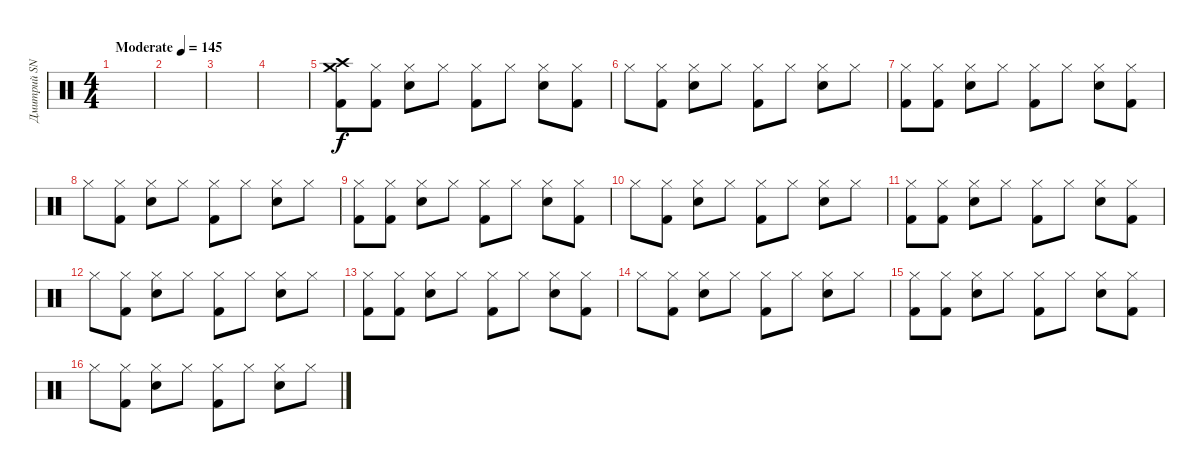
\track ("Дмитрий SNAKE Хакимов" "Дмитрий SN") {instrument percussion}
\staff {score}
\articulation defaults
\ts (4 4)
\tempo (145 "Moderate")
\clef neutral
\ks c
|
|
|
|
("Crash high (hit)" "Crash medium (hit)" "Kick (hit) 2").8 ("Hi-Hat (closed)" "Kick (hit) 2").8 ("Hi-Hat (closed)" "Snare (hit) 2").8 "Hi-Hat (closed)".8 ("Hi-Hat (closed)" "Kick (hit) 2").8 "Hi-Hat (closed)".8 ("Hi-Hat (closed)" "Snare (hit) 2").8 ("Hi-Hat (closed)" "Kick (hit) 2").8 |
"Hi-Hat (closed)".8 ("Hi-Hat (closed)" "Kick (hit) 2").8 ("Hi-Hat (closed)" "Snare (hit) 2").8 "Hi-Hat (closed)".8 ("Hi-Hat (closed)" "Kick (hit) 2").8 "Hi-Hat (closed)".8 ("Hi-Hat (closed)" "Snare (hit) 2").8 "Hi-Hat (closed)".8 |
("Hi-Hat (closed)" "Kick (hit) 2").8 ("Hi-Hat (closed)" "Kick (hit) 2").8 ("Hi-Hat (closed)" "Snare (hit) 2").8 "Hi-Hat (closed)".8 ("Hi-Hat (closed)" "Kick (hit) 2").8 "Hi-Hat (closed)".8 ("Hi-Hat (closed)" "Snare (hit) 2").8 ("Hi-Hat (closed)" "Kick (hit) 2").8 |
"Hi-Hat (closed)".8 ("Hi-Hat (closed)" "Kick (hit) 2").8 ("Hi-Hat (closed)" "Snare (hit) 2").8 "Hi-Hat (closed)".8 ("Hi-Hat (closed)" "Kick (hit) 2").8 "Hi-Hat (closed)".8 ("Hi-Hat (closed)" "Snare (hit) 2").8 "Hi-Hat (closed)".8 |
("Hi-Hat (closed)" "Kick (hit) 2").8 ("Hi-Hat (closed)" "Kick (hit) 2").8 ("Hi-Hat (closed)" "Snare (hit) 2").8 "Hi-Hat (closed)".8 ("Hi-Hat (closed)" "Kick (hit) 2").8 "Hi-Hat (closed)".8 ("Hi-Hat (closed)" "Snare (hit) 2").8 ("Hi-Hat (closed)" "Kick (hit) 2").8 |
"Hi-Hat (closed)".8 ("Hi-Hat (closed)" "Kick (hit) 2").8 ("Hi-Hat (closed)" "Snare (hit) 2").8 "Hi-Hat (closed)".8 ("Hi-Hat (closed)" "Kick (hit) 2").8 "Hi-Hat (closed)".8 ("Hi-Hat (closed)" "Snare (hit) 2").8 "Hi-Hat (closed)".8 |
("Hi-Hat (closed)" "Kick (hit) 2").8 ("Hi-Hat (closed)" "Kick (hit) 2").8 ("Hi-Hat (closed)" "Snare (hit) 2").8 "Hi-Hat (closed)".8 ("Hi-Hat (closed)" "Kick (hit) 2").8 "Hi-Hat (closed)".8 ("Hi-Hat (closed)" "Snare (hit) 2").8 ("Hi-Hat (closed)" "Kick (hit) 2").8 |
"Hi-Hat (closed)".8 ("Hi-Hat (closed)" "Kick (hit) 2").8 ("Hi-Hat (closed)" "Snare (hit) 2").8 "Hi-Hat (closed)".8 ("Hi-Hat (closed)" "Kick (hit) 2").8 "Hi-Hat (closed)".8 ("Hi-Hat (closed)" "Snare (hit) 2").8 "Hi-Hat (closed)".8 |
("Hi-Hat (closed)" "Kick (hit) 2").8 ("Hi-Hat (closed)" "Kick (hit) 2").8 ("Hi-Hat (closed)" "Snare (hit) 2").8 "Hi-Hat (closed)".8 ("Hi-Hat (closed)" "Kick (hit) 2").8 "Hi-Hat (closed)".8 ("Hi-Hat (closed)" "Snare (hit) 2").8 ("Hi-Hat (closed)" "Kick (hit) 2").8 |
"Hi-Hat (closed)".8 ("Hi-Hat (closed)" "Kick (hit) 2").8 ("Hi-Hat (closed)" "Snare (hit) 2").8 "Hi-Hat (closed)".8 ("Hi-Hat (closed)" "Kick (hit) 2").8 "Hi-Hat (closed)".8 ("Hi-Hat (closed)" "Snare (hit) 2").8 "Hi-Hat (closed)".8 |
("Hi-Hat (closed)" "Kick (hit) 2").8 ("Hi-Hat (closed)" "Kick (hit) 2").8 ("Hi-Hat (closed)" "Snare (hit) 2").8 "Hi-Hat (closed)".8 ("Hi-Hat (closed)" "Kick (hit) 2").8 "Hi-Hat (closed)".8 ("Hi-Hat (closed)" "Snare (hit) 2").8 ("Hi-Hat (closed)" "Kick (hit) 2").8 |
"Hi-Hat (closed)".8 ("Hi-Hat (closed)" "Kick (hit) 2").8 ("Hi-Hat (closed)" "Snare (hit) 2").8 "Hi-Hat (closed)".8 ("Hi-Hat (closed)" "Kick (hit) 2").8 "Hi-Hat (closed)".8 ("Hi-Hat (closed)" "Snare (hit) 2").8 "Hi-Hat (closed)".8
